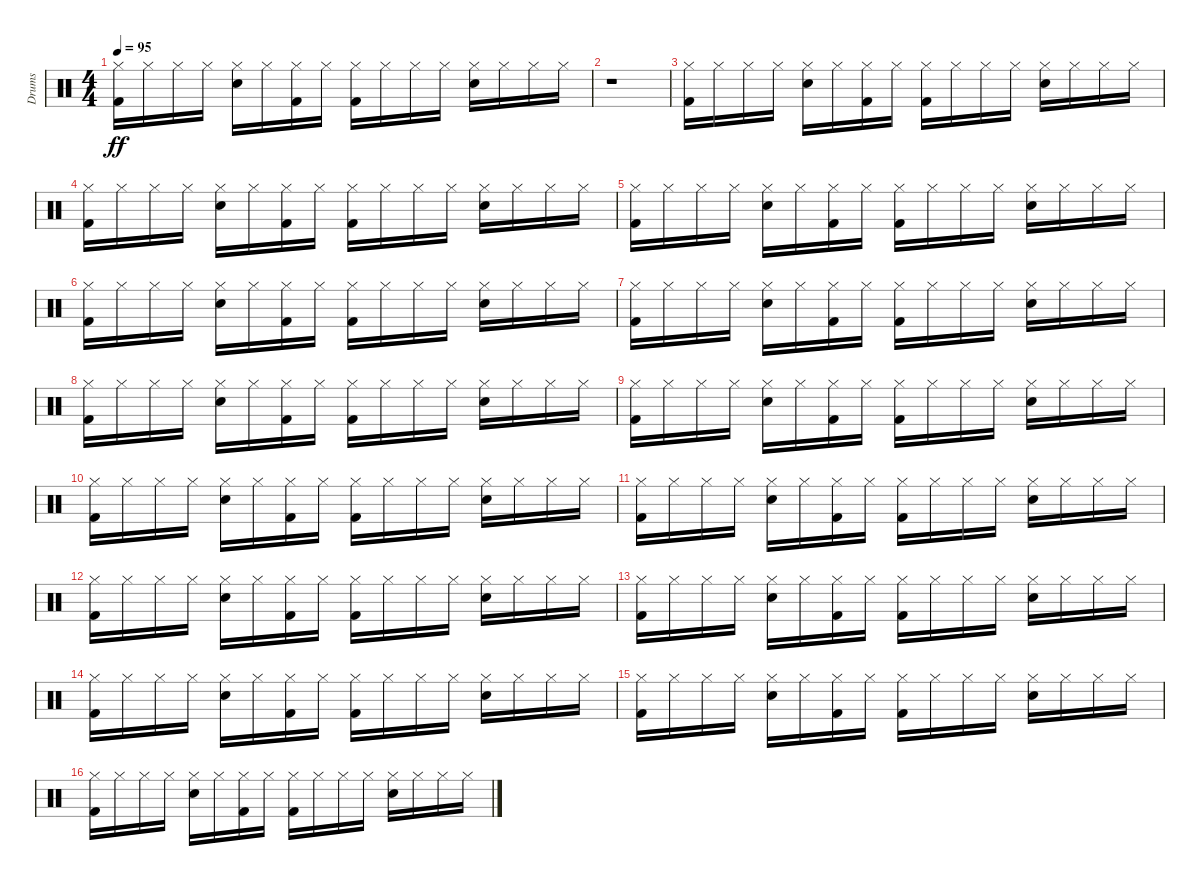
\track ("Drums" "Drums") {instrument percussion}
\staff {score}
\articulation defaults
\ts (4 4)
\tempo 95
\clef neutral
\ks c
("Kick (hit) 2" "Hi-Hat (closed)").16{dy ff} "Hi-Hat (closed)".16 "Hi-Hat (closed)".16 "Hi-Hat (closed)".16 ("Snare (hit) 2" "Hi-Hat (closed)").16 "Hi-Hat (closed)".16 ("Kick (hit) 2" "Hi-Hat (closed)").16 "Hi-Hat (closed)".16 ("Kick (hit) 2" "Hi-Hat (closed)").16 "Hi-Hat (closed)".16 "Hi-Hat (closed)".16 "Hi-Hat (closed)".16 ("Snare (hit) 2" "Hi-Hat (closed)").16 "Hi-Hat (closed)".16 "Hi-Hat (closed)".16 "Hi-Hat (closed)".16 |
r.1 |
("Kick (hit) 2" "Hi-Hat (closed)").16 "Hi-Hat (closed)".16 "Hi-Hat (closed)".16 "Hi-Hat (closed)".16 ("Snare (hit) 2" "Hi-Hat (closed)").16 "Hi-Hat (closed)".16 ("Kick (hit) 2" "Hi-Hat (closed)").16 "Hi-Hat (closed)".16 ("Kick (hit) 2" "Hi-Hat (closed)").16 "Hi-Hat (closed)".16 "Hi-Hat (closed)".16 "Hi-Hat (closed)".16 ("Snare (hit) 2" "Hi-Hat (closed)").16 "Hi-Hat (closed)".16 "Hi-Hat (closed)".16 "Hi-Hat (closed)".16 |
("Kick (hit) 2" "Hi-Hat (closed)").16 "Hi-Hat (closed)".16 "Hi-Hat (closed)".16 "Hi-Hat (closed)".16 ("Snare (hit) 2" "Hi-Hat (closed)").16 "Hi-Hat (closed)".16 ("Kick (hit) 2" "Hi-Hat (closed)").16 "Hi-Hat (closed)".16 ("Kick (hit) 2" "Hi-Hat (closed)").16 "Hi-Hat (closed)".16 "Hi-Hat (closed)".16 "Hi-Hat (closed)".16 ("Snare (hit) 2" "Hi-Hat (closed)").16 "Hi-Hat (closed)".16 "Hi-Hat (closed)".16 "Hi-Hat (closed)".16 |
("Kick (hit) 2" "Hi-Hat (closed)").16 "Hi-Hat (closed)".16 "Hi-Hat (closed)".16 "Hi-Hat (closed)".16 ("Snare (hit) 2" "Hi-Hat (closed)").16 "Hi-Hat (closed)".16 ("Kick (hit) 2" "Hi-Hat (closed)").16 "Hi-Hat (closed)".16 ("Kick (hit) 2" "Hi-Hat (closed)").16 "Hi-Hat (closed)".16 "Hi-Hat (closed)".16 "Hi-Hat (closed)".16 ("Snare (hit) 2" "Hi-Hat (closed)").16 "Hi-Hat (closed)".16 "Hi-Hat (closed)".16 "Hi-Hat (closed)".16 |
("Kick (hit) 2" "Hi-Hat (closed)").16 "Hi-Hat (closed)".16 "Hi-Hat (closed)".16 "Hi-Hat (closed)".16 ("Snare (hit) 2" "Hi-Hat (closed)").16 "Hi-Hat (closed)".16 ("Kick (hit) 2" "Hi-Hat (closed)").16 "Hi-Hat (closed)".16 ("Kick (hit) 2" "Hi-Hat (closed)").16 "Hi-Hat (closed)".16 "Hi-Hat (closed)".16 "Hi-Hat (closed)".16 ("Snare (hit) 2" "Hi-Hat (closed)").16 "Hi-Hat (closed)".16 "Hi-Hat (closed)".16 "Hi-Hat (closed)".16 |
("Kick (hit) 2" "Hi-Hat (closed)").16 "Hi-Hat (closed)".16 "Hi-Hat (closed)".16 "Hi-Hat (closed)".16 ("Snare (hit) 2" "Hi-Hat (closed)").16 "Hi-Hat (closed)".16 ("Kick (hit) 2" "Hi-Hat (closed)").16 "Hi-Hat (closed)".16 ("Kick (hit) 2" "Hi-Hat (closed)").16 "Hi-Hat (closed)".16 "Hi-Hat (closed)".16 "Hi-Hat (closed)".16 ("Snare (hit) 2" "Hi-Hat (closed)").16 "Hi-Hat (closed)".16 "Hi-Hat (closed)".16 "Hi-Hat (closed)".16 |
("Kick (hit) 2" "Hi-Hat (closed)").16 "Hi-Hat (closed)".16 "Hi-Hat (closed)".16 "Hi-Hat (closed)".16 ("Snare (hit) 2" "Hi-Hat (closed)").16 "Hi-Hat (closed)".16 ("Kick (hit) 2" "Hi-Hat (closed)").16 "Hi-Hat (closed)".16 ("Kick (hit) 2" "Hi-Hat (closed)").16 "Hi-Hat (closed)".16 "Hi-Hat (closed)".16 "Hi-Hat (closed)".16 ("Snare (hit) 2" "Hi-Hat (closed)").16 "Hi-Hat (closed)".16 "Hi-Hat (closed)".16 "Hi-Hat (closed)".16 |
("Kick (hit) 2" "Hi-Hat (closed)").16 "Hi-Hat (closed)".16 "Hi-Hat (closed)".16 "Hi-Hat (closed)".16 ("Snare (hit) 2" "Hi-Hat (closed)").16 "Hi-Hat (closed)".16 ("Kick (hit) 2" "Hi-Hat (closed)").16 "Hi-Hat (closed)".16 ("Kick (hit) 2" "Hi-Hat (closed)").16 "Hi-Hat (closed)".16 "Hi-Hat (closed)".16 "Hi-Hat (closed)".16 ("Snare (hit) 2" "Hi-Hat (closed)").16 "Hi-Hat (closed)".16 "Hi-Hat (closed)".16 "Hi-Hat (closed)".16 |
("Kick (hit) 2" "Hi-Hat (closed)").16 "Hi-Hat (closed)".16 "Hi-Hat (closed)".16 "Hi-Hat (closed)".16 ("Snare (hit) 2" "Hi-Hat (closed)").16 "Hi-Hat (closed)".16 ("Kick (hit) 2" "Hi-Hat (closed)").16 "Hi-Hat (closed)".16 ("Kick (hit) 2" "Hi-Hat (closed)").16 "Hi-Hat (closed)".16 "Hi-Hat (closed)".16 "Hi-Hat (closed)".16 ("Snare (hit) 2" "Hi-Hat (closed)").16 "Hi-Hat (closed)".16 "Hi-Hat (closed)".16 "Hi-Hat (closed)".16 |
("Kick (hit) 2" "Hi-Hat (closed)").16 "Hi-Hat (closed)".16 "Hi-Hat (closed)".16 "Hi-Hat (closed)".16 ("Snare (hit) 2" "Hi-Hat (closed)").16 "Hi-Hat (closed)".16 ("Kick (hit) 2" "Hi-Hat (closed)").16 "Hi-Hat (closed)".16 ("Kick (hit) 2" "Hi-Hat (closed)").16 "Hi-Hat (closed)".16 "Hi-Hat (closed)".16 "Hi-Hat (closed)".16 ("Snare (hit) 2" "Hi-Hat (closed)").16 "Hi-Hat (closed)".16 "Hi-Hat (closed)".16 "Hi-Hat (closed)".16 |
("Kick (hit) 2" "Hi-Hat (closed)").16 "Hi-Hat (closed)".16 "Hi-Hat (closed)".16 "Hi-Hat (closed)".16 ("Snare (hit) 2" "Hi-Hat (closed)").16 "Hi-Hat (closed)".16 ("Kick (hit) 2" "Hi-Hat (closed)").16 "Hi-Hat (closed)".16 ("Kick (hit) 2" "Hi-Hat (closed)").16 "Hi-Hat (closed)".16 "Hi-Hat (closed)".16 "Hi-Hat (closed)".16 ("Snare (hit) 2" "Hi-Hat (closed)").16 "Hi-Hat (closed)".16 "Hi-Hat (closed)".16 "Hi-Hat (closed)".16 |
("Kick (hit) 2" "Hi-Hat (closed)").16 "Hi-Hat (closed)".16 "Hi-Hat (closed)".16 "Hi-Hat (closed)".16 ("Snare (hit) 2" "Hi-Hat (closed)").16 "Hi-Hat (closed)".16 ("Kick (hit) 2" "Hi-Hat (closed)").16 "Hi-Hat (closed)".16 ("Kick (hit) 2" "Hi-Hat (closed)").16 "Hi-Hat (closed)".16 "Hi-Hat (closed)".16 "Hi-Hat (closed)".16 ("Snare (hit) 2" "Hi-Hat (closed)").16 "Hi-Hat (closed)".16 "Hi-Hat (closed)".16 "Hi-Hat (closed)".16 |
("Kick (hit) 2" "Hi-Hat (closed)").16 "Hi-Hat (closed)".16 "Hi-Hat (closed)".16 "Hi-Hat (closed)".16 ("Snare (hit) 2" "Hi-Hat (closed)").16 "Hi-Hat (closed)".16 ("Kick (hit) 2" "Hi-Hat (closed)").16 "Hi-Hat (closed)".16 ("Kick (hit) 2" "Hi-Hat (closed)").16 "Hi-Hat (closed)".16 "Hi-Hat (closed)".16 "Hi-Hat (closed)".16 ("Snare (hit) 2" "Hi-Hat (closed)").16 "Hi-Hat (closed)".16 "Hi-Hat (closed)".16 "Hi-Hat (closed)".16 |
("Kick (hit) 2" "Hi-Hat (closed)").16 "Hi-Hat (closed)".16 "Hi-Hat (closed)".16 "Hi-Hat (closed)".16 ("Snare (hit) 2" "Hi-Hat (closed)").16 "Hi-Hat (closed)".16 ("Kick (hit) 2" "Hi-Hat (closed)").16 "Hi-Hat (closed)".16 ("Kick (hit) 2" "Hi-Hat (closed)").16 "Hi-Hat (closed)".16 "Hi-Hat (closed)".16 "Hi-Hat (closed)".16 ("Snare (hit) 2" "Hi-Hat (closed)").16 "Hi-Hat (closed)".16 "Hi-Hat (closed)".16 "Hi-Hat (closed)".16 |
("Kick (hit) 2" "Hi-Hat (closed)").16 "Hi-Hat (closed)".16 "Hi-Hat (closed)".16 "Hi-Hat (closed)".16 ("Snare (hit) 2" "Hi-Hat (closed)").16 "Hi-Hat (closed)".16 ("Kick (hit) 2" "Hi-Hat (closed)").16 "Hi-Hat (closed)".16 ("Kick (hit) 2" "Hi-Hat (closed)").16 "Hi-Hat (closed)".16 "Hi-Hat (closed)".16 "Hi-Hat (closed)".16 ("Snare (hit) 2" "Hi-Hat (closed)").16 "Hi-Hat (closed)".16 "Hi-Hat (closed)".16 "Hi-Hat (closed)".16
